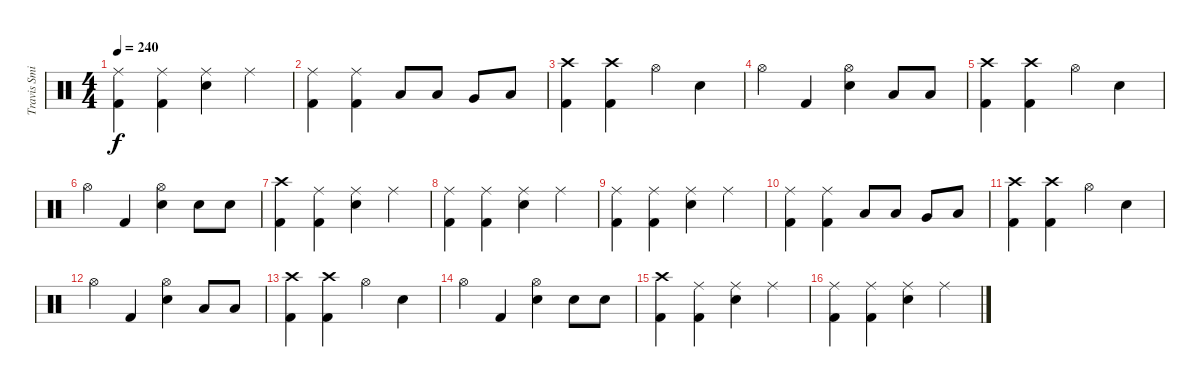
\track ("Travis Smith (Drums)" "Travis Smi") {instrument percussion}
\staff {score}
\articulation defaults
\ts (4 4)
\tempo 240
\clef neutral
\ks c
("Kick (hit) 2" "Ride (middle)").4{dy f} ("Kick (hit) 2" "Ride (middle)").4 ("Snare (hit) 2" "Ride (middle)").4 "Ride (middle)".4 |
("Kick (hit) 2" "Ride (middle)").4 ("Kick (hit) 2" "Ride (middle)").4 "Low Tom (hit)".8 "Low Tom (hit)".8 "Very Low Tom (hit)".8 "Low Floor Tom (hit)".8 |
("Kick (hit) 2" "Crash high (hit)").4 ("Kick (hit) 2" "Crash high (hit)").4 "Hi-Hat (open)".4 "Snare (hit) 2".4 |
"Hi-Hat (open)".4 "Kick (hit) 2".4 ("Snare (hit) 2" "Hi-Hat (open)").4 "Low Tom (hit)".8 "Low Tom (hit)".8 |
("Kick (hit) 2" "Crash high (hit)").4 ("Kick (hit) 2" "Crash high (hit)").4 "Hi-Hat (open)".4 "Snare (hit) 2".4 |
"Hi-Hat (open)".4 "Kick (hit) 2".4 ("Snare (hit) 2" "Hi-Hat (open)").4 "Snare (hit) 2".8 "Snare (hit) 2".8 |
("Kick (hit) 2" "Crash high (hit)").4 ("Kick (hit) 2" "Ride (middle)").4 ("Snare (hit) 2" "Ride (middle)").4 "Ride (middle)".4 |
("Kick (hit) 2" "Ride (middle)").4 ("Kick (hit) 2" "Ride (middle)").4 ("Snare (hit) 2" "Ride (middle)").4 "Ride (middle)".4 |
("Kick (hit) 2" "Ride (middle)").4 ("Kick (hit) 2" "Ride (middle)").4 ("Snare (hit) 2" "Ride (middle)").4 "Ride (middle)".4 |
("Kick (hit) 2" "Ride (middle)").4 ("Kick (hit) 2" "Ride (middle)").4 "Low Tom (hit)".8 "Low Tom (hit)".8 "Very Low Tom (hit)".8 "Low Floor Tom (hit)".8 |
("Kick (hit) 2" "Crash high (hit)").4 ("Kick (hit) 2" "Crash high (hit)").4 "Hi-Hat (open)".4 "Snare (hit) 2".4 |
"Hi-Hat (open)".4 "Kick (hit) 2".4 ("Snare (hit) 2" "Hi-Hat (open)").4 "Low Tom (hit)".8 "Low Tom (hit)".8 |
("Kick (hit) 2" "Crash high (hit)").4 ("Kick (hit) 2" "Crash high (hit)").4 "Hi-Hat (open)".4 "Snare (hit) 2".4 |
"Hi-Hat (open)".4 "Kick (hit) 2".4 ("Snare (hit) 2" "Hi-Hat (open)").4 "Snare (hit) 2".8 "Snare (hit) 2".8 |
("Kick (hit) 2" "Crash high (hit)").4 ("Kick (hit) 2" "Ride (middle)").4 ("Snare (hit) 2" "Ride (middle)").4 "Ride (middle)".4 |
("Kick (hit) 2" "Ride (middle)").4 ("Kick (hit) 2" "Ride (middle)").4 ("Snare (hit) 2" "Ride (middle)").4 "Ride (middle)".4
